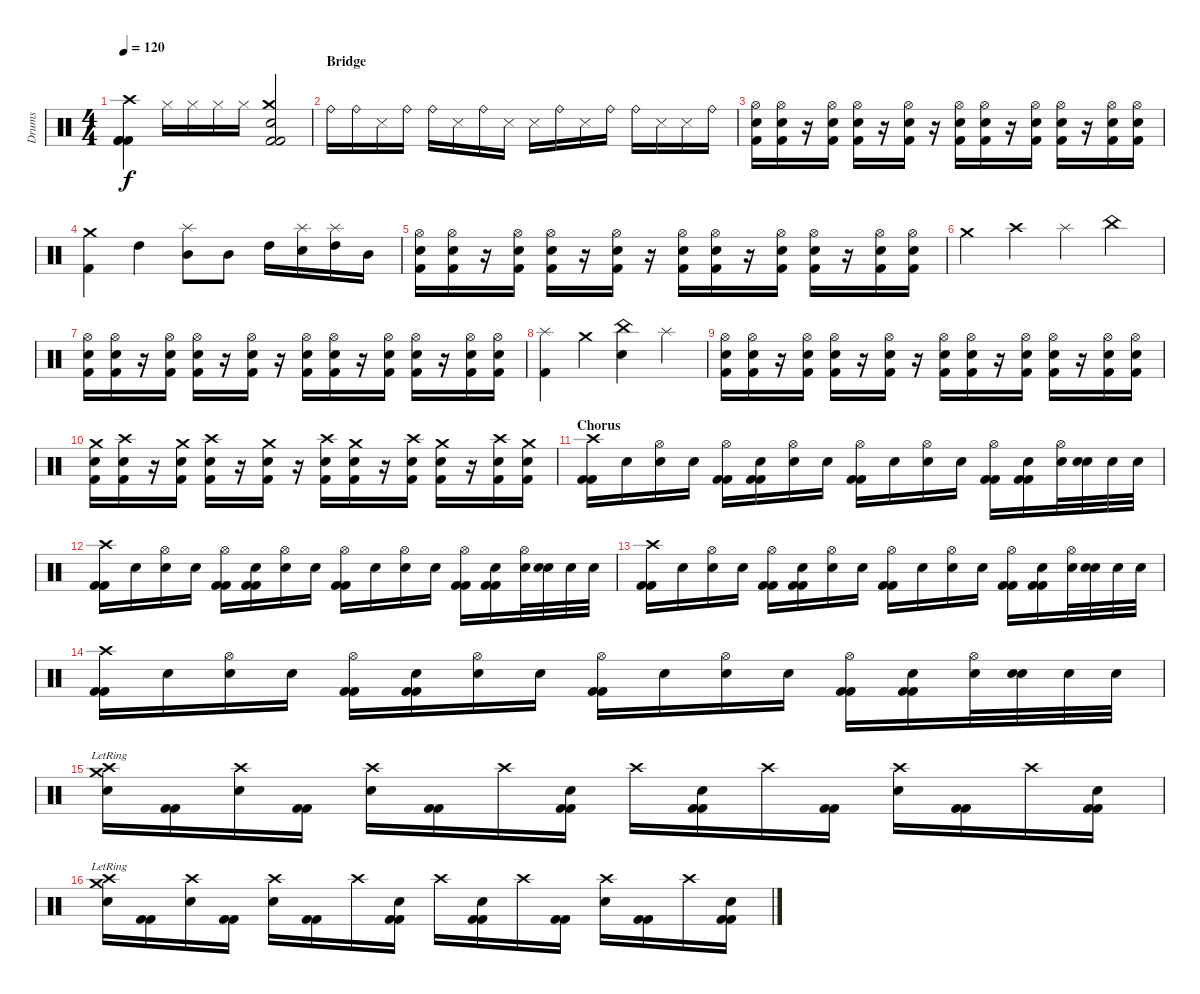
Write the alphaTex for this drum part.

\track ("Drums" "Drums") {instrument percussion}
\staff {score}
\articulation defaults
\ts (4 4)
\tempo 120
\clef neutral
\ks c
("Crash high (hit)" "Kick (hit) 2" "Kick (hit) 2" "Kick (hit) 2").4{dy f} "Hi-Hat (closed)".16 "Hi-Hat (closed)".16 "Hi-Hat (closed)".16 "Hi-Hat (closed)".16 ("Crash medium (hit)" "Kick (hit) 2" "Kick (hit) 2" "Snare (hit)").2 |
\section ("" "Bridge")
"Ride (bell)".16 "Ride (bell)".16 "Snare (side stick) 3".16 "Ride (bell)".16 "Ride (bell)".16 "Snare (side stick) 3".16 "Ride (bell)".16 "Snare (side stick) 3".16 "Snare (side stick) 3".16 "Ride (bell)".16 "Snare (side stick) 3".16 "Ride (bell)".16 "Ride (bell)".16 "Snare (side stick) 3".16 "Snare (side stick) 3".16 "Ride (bell)".16 |
("Kick (hit) 2" "Electric Snare (hit)" "Hi-Hat (open)").16 ("Kick (hit) 2" "Electric Snare (hit)" "Hi-Hat (open)").16 r.16 ("Kick (hit) 2" "Electric Snare (hit)" "Hi-Hat (open)").16 ("Kick (hit) 2" "Electric Snare (hit)" "Hi-Hat (open)").16 r.16 ("Kick (hit) 2" "Electric Snare (hit)" "Hi-Hat (open)").16 r.16 ("Kick (hit) 2" "Electric Snare (hit)" "Hi-Hat (open)").16 ("Kick (hit) 2" "Electric Snare (hit)" "Hi-Hat (open)").16 r.16 ("Kick (hit) 2" "Electric Snare (hit)" "Hi-Hat (open)").16 ("Kick (hit) 2" "Electric Snare (hit)" "Hi-Hat (open)").16 r.16 ("Kick (hit) 2" "Electric Snare (hit)" "Hi-Hat (open)").16 ("Kick (hit) 2" "Electric Snare (hit)" "Hi-Hat (open)").16 |
("Kick (hit) 2" "Crash medium (hit)").4 "High Tom (hit)".4 ("Splash (hit)" "Mid Tom (hit)").8 "Mid Tom (hit)".8 "High Tom (hit)".16 ("Splash (hit)" "Electric Snare (hit)").16 ("Splash (hit)" "High Tom (hit)").16 "Mid Tom (hit)".16 |
("Kick (hit) 2" "Electric Snare (hit)" "Hi-Hat (open)").16 ("Kick (hit) 2" "Electric Snare (hit)" "Hi-Hat (open)").16 r.16 ("Kick (hit) 2" "Electric Snare (hit)" "Hi-Hat (open)").16 ("Kick (hit) 2" "Electric Snare (hit)" "Hi-Hat (open)").16 r.16 ("Kick (hit) 2" "Electric Snare (hit)" "Hi-Hat (open)").16 r.16 ("Kick (hit) 2" "Electric Snare (hit)" "Hi-Hat (open)").16 ("Kick (hit) 2" "Electric Snare (hit)" "Hi-Hat (open)").16 r.16 ("Kick (hit) 2" "Electric Snare (hit)" "Hi-Hat (open)").16 ("Kick (hit) 2" "Electric Snare (hit)" "Hi-Hat (open)").16 r.16 ("Kick (hit) 2" "Electric Snare (hit)" "Hi-Hat (open)").16 ("Kick (hit) 2" "Electric Snare (hit)" "Hi-Hat (open)").16 |
"Crash medium (hit)".4 "Crash high (hit)".4 "Splash (hit)".4 "China (hit)".4 |
("Kick (hit) 2" "Electric Snare (hit)" "Hi-Hat (open)").16 ("Kick (hit) 2" "Electric Snare (hit)" "Hi-Hat (open)").16 r.16 ("Kick (hit) 2" "Electric Snare (hit)" "Hi-Hat (open)").16 ("Kick (hit) 2" "Electric Snare (hit)" "Hi-Hat (open)").16 r.16 ("Kick (hit) 2" "Electric Snare (hit)" "Hi-Hat (open)").16 r.16 ("Kick (hit) 2" "Electric Snare (hit)" "Hi-Hat (open)").16 ("Kick (hit) 2" "Electric Snare (hit)" "Hi-Hat (open)").16 r.16 ("Kick (hit) 2" "Electric Snare (hit)" "Hi-Hat (open)").16 ("Kick (hit) 2" "Electric Snare (hit)" "Hi-Hat (open)").16 r.16 ("Kick (hit) 2" "Electric Snare (hit)" "Hi-Hat (open)").16 ("Kick (hit) 2" "Electric Snare (hit)" "Hi-Hat (open)").16 |
("Kick (hit) 2" "Splash (hit)").4 "Crash medium (hit)".4 ("Electric Snare (hit)" "China (hit)").4 "Splash (hit)".4 |
("Kick (hit) 2" "Electric Snare (hit)" "Hi-Hat (open)").16 ("Kick (hit) 2" "Electric Snare (hit)" "Hi-Hat (open)").16 r.16 ("Kick (hit) 2" "Electric Snare (hit)" "Hi-Hat (open)").16 ("Kick (hit) 2" "Electric Snare (hit)" "Hi-Hat (open)").16 r.16 ("Kick (hit) 2" "Electric Snare (hit)" "Hi-Hat (open)").16 r.16 ("Kick (hit) 2" "Electric Snare (hit)" "Hi-Hat (open)").16 ("Kick (hit) 2" "Electric Snare (hit)" "Hi-Hat (open)").16 r.16 ("Kick (hit) 2" "Electric Snare (hit)" "Hi-Hat (open)").16 ("Kick (hit) 2" "Electric Snare (hit)" "Hi-Hat (open)").16 r.16 ("Kick (hit) 2" "Electric Snare (hit)" "Hi-Hat (open)").16 ("Kick (hit) 2" "Electric Snare (hit)" "Hi-Hat (open)").16 |
("Kick (hit) 2" "Electric Snare (hit)" "Crash medium (hit)").16 ("Kick (hit) 2" "Electric Snare (hit)" "Crash high (hit)").16 r.16 ("Kick (hit) 2" "Electric Snare (hit)" "Crash medium (hit)").16 ("Kick (hit) 2" "Electric Snare (hit)" "Crash high (hit)").16 r.16 ("Kick (hit) 2" "Electric Snare (hit)" "Crash medium (hit)").16 r.16 ("Kick (hit) 2" "Electric Snare (hit)" "Crash high (hit)").16 ("Kick (hit) 2" "Electric Snare (hit)" "Crash medium (hit)").16 r.16 ("Kick (hit) 2" "Electric Snare (hit)" "Crash high (hit)").16 ("Kick (hit) 2" "Electric Snare (hit)" "Crash medium (hit)").16 r.16 ("Kick (hit) 2" "Electric Snare (hit)" "Crash high (hit)").16 ("Kick (hit) 2" "Electric Snare (hit)" "Crash medium (hit)").16 |
\section ("" "Chorus")
("Crash high (hit)" "Kick (hit) 2" "Kick (hit) 2").16 "Snare (hit)".16 ("Hi-Hat (open)" "Electric Snare (hit)").16 "Snare (hit)".16 ("Hi-Hat (open)" "Kick (hit) 2" "Kick (hit) 2").16 ("Snare (hit)" "Kick (hit) 2" "Kick (hit) 2").16 ("Hi-Hat (open)" "Electric Snare (hit)").16 "Snare (hit)".16 ("Hi-Hat (open)" "Kick (hit) 2" "Kick (hit) 2").16 "Snare (hit)".16 ("Hi-Hat (open)" "Electric Snare (hit)").16 "Snare (hit)".16 ("Hi-Hat (open)" "Kick (hit) 2" "Kick (hit) 2").16 ("Snare (hit)" "Kick (hit) 2" "Kick (hit) 2").16 ("Hi-Hat (open)" "Electric Snare (hit)").32 ("Snare (hit)" "Electric Snare (hit)").32 "Electric Snare (hit)".32 "Electric Snare (hit)".32 |
("Crash high (hit)" "Kick (hit) 2" "Kick (hit) 2").16 "Snare (hit)".16 ("Hi-Hat (open)" "Electric Snare (hit)").16 "Snare (hit)".16 ("Hi-Hat (open)" "Kick (hit) 2" "Kick (hit) 2").16 ("Snare (hit)" "Kick (hit) 2" "Kick (hit) 2").16 ("Hi-Hat (open)" "Electric Snare (hit)").16 "Snare (hit)".16 ("Hi-Hat (open)" "Kick (hit) 2" "Kick (hit) 2").16 "Snare (hit)".16 ("Hi-Hat (open)" "Electric Snare (hit)").16 "Snare (hit)".16 ("Hi-Hat (open)" "Kick (hit) 2" "Kick (hit) 2").16 ("Snare (hit)" "Kick (hit) 2" "Kick (hit) 2").16 ("Hi-Hat (open)" "Electric Snare (hit)").32 ("Snare (hit)" "Electric Snare (hit)").32 "Electric Snare (hit)".32 "Electric Snare (hit)".32 |
("Crash high (hit)" "Kick (hit) 2" "Kick (hit) 2").16 "Snare (hit)".16 ("Hi-Hat (open)" "Electric Snare (hit)").16 "Snare (hit)".16 ("Hi-Hat (open)" "Kick (hit) 2" "Kick (hit) 2").16 ("Snare (hit)" "Kick (hit) 2" "Kick (hit) 2").16 ("Hi-Hat (open)" "Electric Snare (hit)").16 "Snare (hit)".16 ("Hi-Hat (open)" "Kick (hit) 2" "Kick (hit) 2").16 "Snare (hit)".16 ("Hi-Hat (open)" "Electric Snare (hit)").16 "Snare (hit)".16 ("Hi-Hat (open)" "Kick (hit) 2" "Kick (hit) 2").16 ("Snare (hit)" "Kick (hit) 2" "Kick (hit) 2").16 ("Hi-Hat (open)" "Electric Snare (hit)").32 ("Snare (hit)" "Electric Snare (hit)").32 "Electric Snare (hit)".32 "Electric Snare (hit)".32 |
("Crash high (hit)" "Kick (hit) 2" "Kick (hit) 2").16 "Snare (hit)".16 ("Hi-Hat (open)" "Electric Snare (hit)").16 "Snare (hit)".16 ("Hi-Hat (open)" "Kick (hit) 2" "Kick (hit) 2").16 ("Snare (hit)" "Kick (hit) 2" "Kick (hit) 2").16 ("Hi-Hat (open)" "Electric Snare (hit)").16 "Snare (hit)".16 ("Hi-Hat (open)" "Kick (hit) 2" "Kick (hit) 2").16 "Snare (hit)".16 ("Hi-Hat (open)" "Electric Snare (hit)").16 "Snare (hit)".16 ("Hi-Hat (open)" "Kick (hit) 2" "Kick (hit) 2").16 ("Snare (hit)" "Kick (hit) 2" "Kick (hit) 2").16 ("Hi-Hat (open)" "Electric Snare (hit)").32 ("Snare (hit)" "Electric Snare (hit)").32 "Electric Snare (hit)".32 "Electric Snare (hit)".32 |
("Crash medium (hit)"{lr} "Crash high (hit)"{lr} "Electric Snare (hit)").16 ("Kick (hit) 2" "Kick (hit) 2").16 ("Crash high (hit)" "Electric Snare (hit)").16 ("Kick (hit) 2" "Kick (hit) 2").16 ("Crash high (hit)" "Electric Snare (hit)").16 ("Kick (hit) 2" "Kick (hit) 2").16 "Crash high (hit)".16 ("Electric Snare (hit)" "Kick (hit) 2" "Kick (hit) 2").16 "Crash high (hit)".16 ("Electric Snare (hit)" "Kick (hit) 2" "Kick (hit) 2").16 "Crash high (hit)".16 ("Kick (hit) 2" "Kick (hit) 2").16 ("Crash high (hit)" "Electric Snare (hit)").16 ("Kick (hit) 2" "Kick (hit) 2").16 "Crash high (hit)".16 ("Electric Snare (hit)" "Kick (hit) 2" "Kick (hit) 2").16 |
("Crash medium (hit)"{lr} "Crash high (hit)"{lr} "Electric Snare (hit)").16 ("Kick (hit) 2" "Kick (hit) 2").16 ("Crash high (hit)" "Electric Snare (hit)").16 ("Kick (hit) 2" "Kick (hit) 2").16 ("Crash high (hit)" "Electric Snare (hit)").16 ("Kick (hit) 2" "Kick (hit) 2").16 "Crash high (hit)".16 ("Electric Snare (hit)" "Kick (hit) 2" "Kick (hit) 2").16 "Crash high (hit)".16 ("Electric Snare (hit)" "Kick (hit) 2" "Kick (hit) 2").16 "Crash high (hit)".16 ("Kick (hit) 2" "Kick (hit) 2").16 ("Crash high (hit)" "Electric Snare (hit)").16 ("Kick (hit) 2" "Kick (hit) 2").16 "Crash high (hit)".16 ("Electric Snare (hit)" "Kick (hit) 2" "Kick (hit) 2").16
